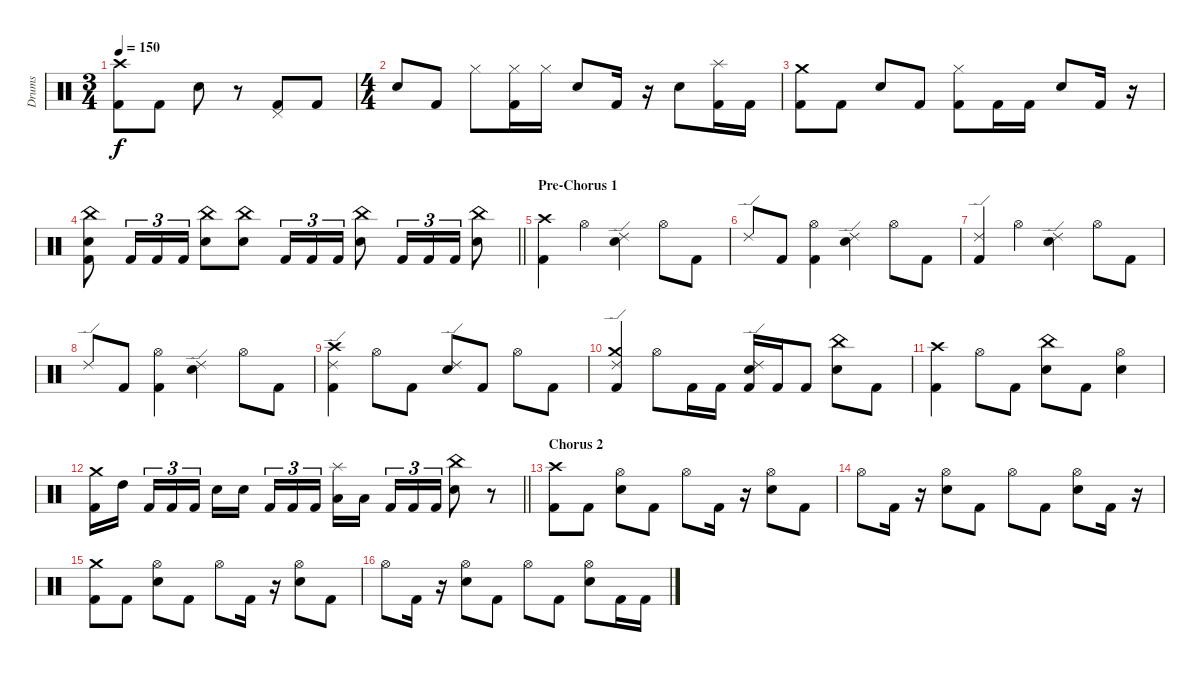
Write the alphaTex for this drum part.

\track ("Drums" "Drums") {instrument percussion}
\staff {score}
\articulation defaults
\ts (3 4)
\tempo 150
\clef neutral
\ks c
("Crash high (hit)" "Kick (hit) 2").8{dy f} "Kick (hit) 2".8 "Snare (hit) 2".8 r.8 ("Pedal Hi-Hat (hit)" "Kick (hit) 2").8 "Kick (hit) 2".8 |
\ts (4 4)
"Snare (hit) 2".8 "Kick (hit) 2".8 "Hi-Hat (closed)".8 ("Hi-Hat (closed)" "Kick (hit) 2").16 "Hi-Hat (closed)".16 "Snare (hit) 2".8 "Kick (hit) 2".16 r.16 "Snare (hit) 2".8 ("Splash (hit)" "Kick (hit) 2").16 "Kick (hit) 2".16 |
("Crash medium (hit)" "Kick (hit) 2").8 "Kick (hit) 2".8 "Snare (hit) 2".8 "Kick (hit) 2".8 ("Hi-Hat (closed)" "Kick (hit) 2").8 "Kick (hit) 2".16 "Kick (hit) 2".16 "Snare (hit) 2".8 "Kick (hit) 2".16 r.16 |
\barLineRight lightlight
("China (hit)" "Snare (hit) 2" "Kick (hit) 2").8 "Kick (hit) 2".16{tu (3 2)} "Kick (hit) 2".16{tu (3 2)} "Kick (hit) 2".16{tu (3 2)} ("China (hit)" "Snare (hit) 2").8 ("China (hit)" "Snare (hit) 2").8 "Kick (hit) 2".16{tu (3 2)} "Kick (hit) 2".16{tu (3 2)} "Kick (hit) 2".16{tu (3 2)} ("China (hit)" "Snare (hit) 2").8 "Kick (hit) 2".16{tu (3 2)} "Kick (hit) 2".16{tu (3 2)} "Kick (hit) 2".16{tu (3 2)} ("China (hit)" "Snare (hit) 2").8 |
\section ("" "Pre-Chorus 1")
("Crash high (hit)" "Kick (hit) 2").4 "Hi-Hat (open)".4 ("Ride (edge) 2" "Snare (hit) 2").4 "Hi-Hat (open)".8 "Kick (hit) 2".8 |
"Ride (edge) 2".8 "Kick (hit) 2".8 ("Hi-Hat (open)" "Kick (hit) 2").4 ("Ride (edge) 2" "Snare (hit) 2").4 "Hi-Hat (open)".8 "Kick (hit) 2".8 |
("Ride (edge) 2" "Kick (hit) 2").4 "Hi-Hat (open)".4 ("Ride (edge) 2" "Snare (hit) 2").4 "Hi-Hat (open)".8 "Kick (hit) 2".8 |
"Ride (edge) 2".8 "Kick (hit) 2".8 ("Hi-Hat (open)" "Kick (hit) 2").4 ("Ride (edge) 2" "Snare (hit) 2").4 "Hi-Hat (open)".8 "Kick (hit) 2".8 |
("Crash high (hit)" "Ride (edge) 2" "Kick (hit) 2").4 "Hi-Hat (open)".8 "Kick (hit) 2".8 ("Ride (edge) 2" "Snare (hit) 2").8 "Kick (hit) 2".8 "Hi-Hat (open)".8 "Kick (hit) 2".8 |
("Crash medium (hit)" "Ride (edge) 2" "Kick (hit) 2").4 "Hi-Hat (open)".8 "Kick (hit) 2".16 "Kick (hit) 2".16 ("Ride (edge) 2" "Snare (hit) 2" "Kick (hit) 2").16 "Kick (hit) 2".16 "Kick (hit) 2".8 ("China (hit)" "Snare (hit) 2").8 "Kick (hit) 2".8 |
("Crash high (hit)" "Kick (hit) 2").4 "Hi-Hat (open)".8 "Kick (hit) 2".8 ("China (hit)" "Snare (hit) 2").8 "Kick (hit) 2".8 ("Hi-Hat (open)" "Snare (hit) 2").4 |
\barLineRight lightlight
("Crash medium (hit)" "Kick (hit) 2").16 "High Tom (hit)".16{beam splitsecondary} "Kick (hit) 2".16{tu (3 2)} "Kick (hit) 2".16{tu (3 2)} "Kick (hit) 2".16{tu (3 2)} "Snare (hit) 2".16 "Snare (hit) 2".16{beam splitsecondary} "Kick (hit) 2".16{tu (3 2)} "Kick (hit) 2".16{tu (3 2)} "Kick (hit) 2".16{tu (3 2)} ("Splash (hit)" "Low Tom (hit)").16 "Low Tom (hit)".16{beam splitsecondary} "Kick (hit) 2".16{tu (3 2)} "Kick (hit) 2".16{tu (3 2)} "Kick (hit) 2".16{tu (3 2)} ("China (hit)" "Snare (hit) 2").8 r.8 |
\section ("" "Chorus 2")
("Crash high (hit)" "Kick (hit) 2").8 "Kick (hit) 2".8 ("Hi-Hat (open)" "Snare (hit) 2").8 "Kick (hit) 2".8 "Hi-Hat (open)".8 "Kick (hit) 2".16 r.16 ("Hi-Hat (open)" "Snare (hit) 2").8 "Kick (hit) 2".8 |
"Hi-Hat (open)".8 "Kick (hit) 2".16 r.16 ("Hi-Hat (open)" "Snare (hit) 2").8 "Kick (hit) 2".8 "Hi-Hat (open)".8 "Kick (hit) 2".8 ("Hi-Hat (open)" "Snare (hit) 2").8 "Kick (hit) 2".16 r.16 |
("Crash medium (hit)" "Kick (hit) 2").8 "Kick (hit) 2".8 ("Hi-Hat (open)" "Snare (hit) 2").8 "Kick (hit) 2".8 "Hi-Hat (open)".8 "Kick (hit) 2".16 r.16 ("Hi-Hat (open)" "Snare (hit) 2").8 "Kick (hit) 2".8 |
"Hi-Hat (open)".8 "Kick (hit) 2".16 r.16 ("Hi-Hat (open)" "Snare (hit) 2").8 "Kick (hit) 2".8 "Hi-Hat (open)".8 "Kick (hit) 2".8 ("Hi-Hat (open)" "Snare (hit) 2").8 "Kick (hit) 2".16 "Kick (hit) 2".16
